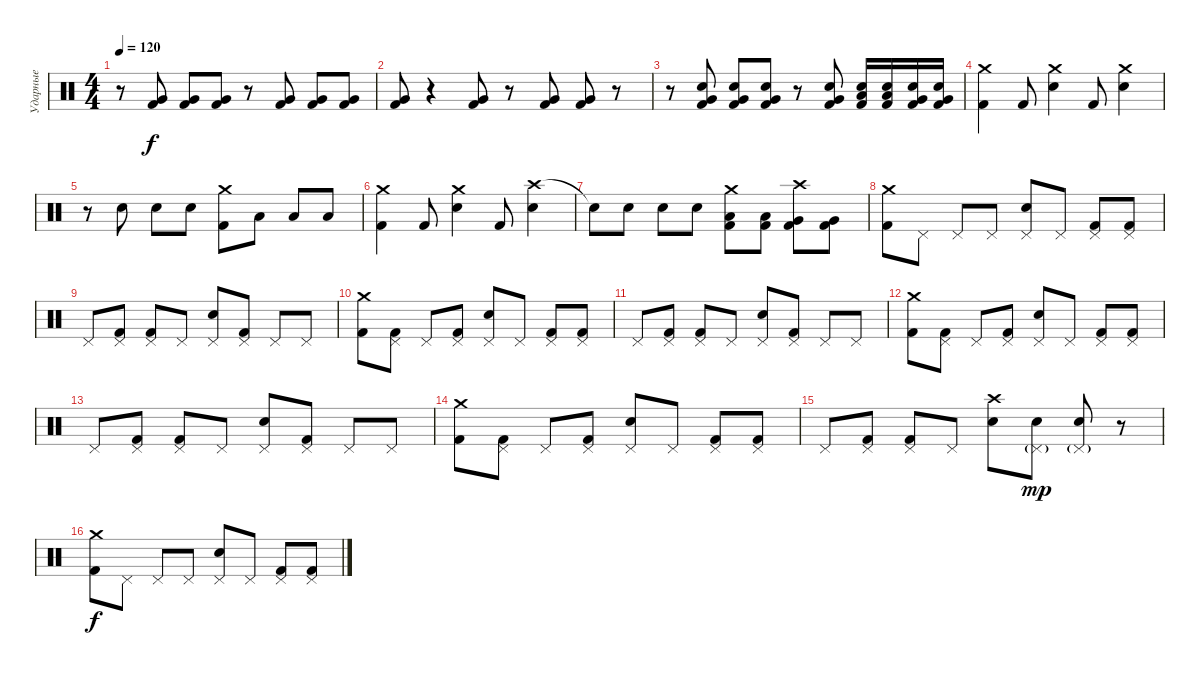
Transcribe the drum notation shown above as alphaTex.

\track ("Ударные" "Ударные") {instrument percussion}
\staff {score}
\articulation defaults
\ts (4 4)
\tempo 120
\clef neutral
\ks c
r.8{dy f} ("Very Low Tom (hit)" "Kick (hit) 2").8 ("Very Low Tom (hit)" "Kick (hit) 2").8 ("Very Low Tom (hit)" "Kick (hit) 2").8 r.8 ("Very Low Tom (hit)" "Kick (hit) 2").8 ("Very Low Tom (hit)" "Kick (hit) 2").8 ("Very Low Tom (hit)" "Kick (hit) 2").8 |
("Very Low Tom (hit)" "Kick (hit) 2").8 r.4 ("Very Low Tom (hit)" "Kick (hit) 2").8 r.8 ("Very Low Tom (hit)" "Kick (hit) 2").8 ("Very Low Tom (hit)" "Kick (hit) 2").8 r.8 |
r.8 ("Snare (hit) 2" "Very Low Tom (hit)" "Kick (hit) 2").8 ("Snare (hit) 2" "Very Low Tom (hit)" "Kick (hit) 2").8 ("Snare (hit) 2" "Very Low Tom (hit)" "Kick (hit) 2").8 r.8 ("Snare (hit) 2" "Very Low Tom (hit)" "Kick (hit) 2").8 ("Snare (hit) 2" "Low Tom (hit)" "Kick (hit) 2").16 ("Snare (hit) 2" "Low Tom (hit)" "Kick (hit) 2").16 ("Snare (hit) 2" "Very Low Tom (hit)" "Kick (hit) 2").16 ("Snare (hit) 2" "Very Low Tom (hit)" "Kick (hit) 2").16 |
("Crash medium (hit)" "Kick (hit) 2").4 "Kick (hit) 2".8 ("Crash medium (hit)" "Snare (hit) 2").4 "Kick (hit) 2".8 ("Crash medium (hit)" "Snare (hit) 2").4 |
r.8 "Snare (hit) 2".8 "Snare (hit) 2".8 "Snare (hit) 2".8 ("Crash medium (hit)" "Kick (hit) 2").8 "Low Tom (hit)".8 "Low Tom (hit)".8 "Low Tom (hit)".8 |
("Crash medium (hit)" "Kick (hit) 2").4 "Kick (hit) 2".8 ("Crash medium (hit)" "Snare (hit) 2").4 "Kick (hit) 2".8 ("Crash high (hit)" "Snare (hit) 2").4 |
"Snare (hit)"{t}.8 "Snare (hit) 2".8 "Snare (hit) 2".8 "Snare (hit) 2".8 ("Crash medium (hit)" "Low Tom (hit)" "Kick (hit) 2").8 ("Low Tom (hit)" "Kick (hit) 2").8 ("Crash high (hit)" "Very Low Tom (hit)" "Kick (hit) 2").8 ("Very Low Tom (hit)" "Kick (hit) 2").8 |
("Crash medium (hit)" "Kick (hit) 2").8 "Pedal Hi-Hat (hit)".8 "Pedal Hi-Hat (hit)".8 "Pedal Hi-Hat (hit)".8 ("Pedal Hi-Hat (hit)" "Snare (hit) 2").8 "Pedal Hi-Hat (hit)".8 ("Pedal Hi-Hat (hit)" "Kick (hit) 2").8 ("Pedal Hi-Hat (hit)" "Kick (hit) 2").8 |
"Pedal Hi-Hat (hit)".8 ("Pedal Hi-Hat (hit)" "Kick (hit) 2").8 ("Pedal Hi-Hat (hit)" "Kick (hit) 2").8 "Pedal Hi-Hat (hit)".8 ("Pedal Hi-Hat (hit)" "Snare (hit) 2").8 ("Pedal Hi-Hat (hit)" "Kick (hit) 2").8 "Pedal Hi-Hat (hit)".8 "Pedal Hi-Hat (hit)".8 |
("Crash medium (hit)" "Kick (hit) 2").8 ("Pedal Hi-Hat (hit)" "Kick (hit) 2").8 "Pedal Hi-Hat (hit)".8 ("Pedal Hi-Hat (hit)" "Kick (hit) 2").8 ("Pedal Hi-Hat (hit)" "Snare (hit) 2").8 "Pedal Hi-Hat (hit)".8 ("Pedal Hi-Hat (hit)" "Kick (hit) 2").8 ("Pedal Hi-Hat (hit)" "Kick (hit) 2").8 |
"Pedal Hi-Hat (hit)".8 ("Pedal Hi-Hat (hit)" "Kick (hit) 2").8 ("Pedal Hi-Hat (hit)" "Kick (hit) 2").8 "Pedal Hi-Hat (hit)".8 ("Pedal Hi-Hat (hit)" "Snare (hit) 2").8 ("Pedal Hi-Hat (hit)" "Kick (hit) 2").8 "Pedal Hi-Hat (hit)".8 "Pedal Hi-Hat (hit)".8 |
("Crash medium (hit)" "Kick (hit) 2").8 ("Pedal Hi-Hat (hit)" "Kick (hit) 2").8 "Pedal Hi-Hat (hit)".8 ("Pedal Hi-Hat (hit)" "Kick (hit) 2").8 ("Pedal Hi-Hat (hit)" "Snare (hit) 2").8 "Pedal Hi-Hat (hit)".8 ("Pedal Hi-Hat (hit)" "Kick (hit) 2").8 ("Pedal Hi-Hat (hit)" "Kick (hit) 2").8 |
"Pedal Hi-Hat (hit)".8 ("Pedal Hi-Hat (hit)" "Kick (hit) 2").8 ("Pedal Hi-Hat (hit)" "Kick (hit) 2").8 "Pedal Hi-Hat (hit)".8 ("Pedal Hi-Hat (hit)" "Snare (hit) 2").8 ("Pedal Hi-Hat (hit)" "Kick (hit) 2").8 "Pedal Hi-Hat (hit)".8 "Pedal Hi-Hat (hit)".8 |
("Crash medium (hit)" "Kick (hit) 2").8 ("Pedal Hi-Hat (hit)" "Kick (hit) 2").8 "Pedal Hi-Hat (hit)".8 ("Pedal Hi-Hat (hit)" "Kick (hit) 2").8 ("Pedal Hi-Hat (hit)" "Snare (hit) 2").8 "Pedal Hi-Hat (hit)".8 ("Pedal Hi-Hat (hit)" "Kick (hit) 2").8 ("Pedal Hi-Hat (hit)" "Kick (hit) 2").8 |
"Pedal Hi-Hat (hit)".8 ("Pedal Hi-Hat (hit)" "Kick (hit) 2").8 ("Pedal Hi-Hat (hit)" "Kick (hit) 2").8 "Pedal Hi-Hat (hit)".8 ("Crash high (hit)" "Snare (hit) 2").8 ("Pedal Hi-Hat (hit)"{g} "Snare (hit) 2").8{dy mp} ("Pedal Hi-Hat (hit)"{g} "Snare (hit) 2").8 r.8 |
("Crash medium (hit)" "Kick (hit) 2").8{dy f} "Pedal Hi-Hat (hit)".8 "Pedal Hi-Hat (hit)".8 "Pedal Hi-Hat (hit)".8 ("Pedal Hi-Hat (hit)" "Snare (hit) 2").8 "Pedal Hi-Hat (hit)".8 ("Pedal Hi-Hat (hit)" "Kick (hit) 2").8 ("Pedal Hi-Hat (hit)" "Kick (hit) 2").8
